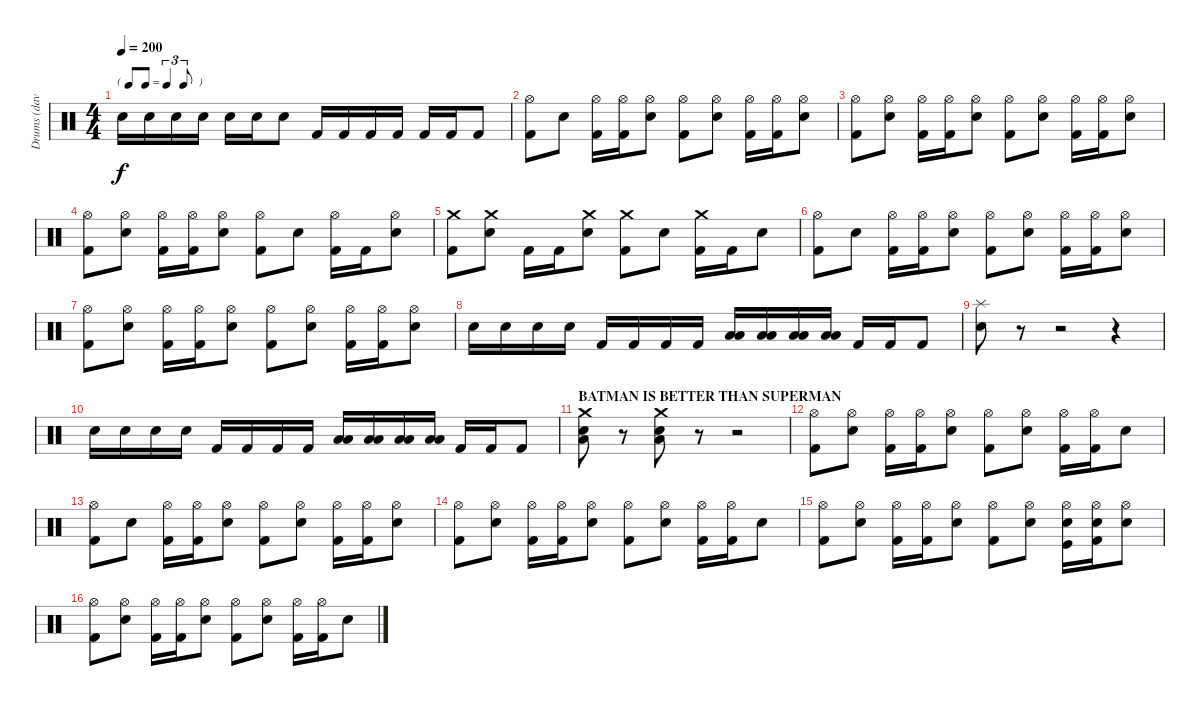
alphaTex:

\track ("Drums (dave)" "Drums (dav") {instrument percussion}
\staff {score}
\articulation defaults
\ts (4 4)
\tf triplet8th
\tempo 200
\clef neutral
\ks c "Snare (hit) 2".16{dy f} "Snare (hit) 2".16 "Snare (hit) 2".16 "Snare (hit) 2".16 "Snare (hit) 2".16 "Snare (hit) 2".16 "Snare (hit) 2".8 "Kick (hit) 2".16 "Kick (hit) 2".16 "Kick (hit) 2".16 "Kick (hit) 2".16 "Kick (hit) 2".16 "Kick (hit) 2".16 "Kick (hit) 2".8
|
("Hi-Hat (open)" "Kick (hit) 2").8 "Snare (hit) 2".8 ("Hi-Hat (open)" "Kick (hit) 2").16 ("Hi-Hat (open)" "Kick (hit) 2").16 ("Hi-Hat (open)" "Snare (hit) 2").8 ("Hi-Hat (open)" "Kick (hit) 2").8 ("Hi-Hat (open)" "Snare (hit) 2").8 ("Hi-Hat (open)" "Kick (hit) 2").16 ("Hi-Hat (open)" "Kick (hit) 2").16 ("Hi-Hat (open)" "Snare (hit) 2").8 |
("Hi-Hat (open)" "Kick (hit) 2").8 ("Hi-Hat (open)" "Snare (hit) 2").8 ("Hi-Hat (open)" "Kick (hit) 2").16 ("Hi-Hat (open)" "Kick (hit) 2").16 ("Hi-Hat (open)" "Snare (hit) 2").8 ("Hi-Hat (open)" "Kick (hit) 2").8 ("Hi-Hat (open)" "Snare (hit) 2").8 ("Hi-Hat (open)" "Kick (hit) 2").16 ("Hi-Hat (open)" "Kick (hit) 2").16 ("Hi-Hat (open)" "Snare (hit) 2").8 |
("Hi-Hat (open)" "Kick (hit) 2").8 ("Hi-Hat (open)" "Snare (hit) 2").8 ("Hi-Hat (open)" "Kick (hit) 2").16 ("Hi-Hat (open)" "Kick (hit) 2").16 ("Hi-Hat (open)" "Snare (hit) 2").8 ("Hi-Hat (open)" "Kick (hit) 2").8 "Snare (hit) 2".8 ("Hi-Hat (open)" "Kick (hit) 2").16 "Kick (hit) 2".16 ("Hi-Hat (open)" "Snare (hit) 2").8 |
("Crash medium (hit)" "Kick (hit) 2").8 ("Crash medium (hit)" "Snare (hit) 2").8 "Kick (hit) 2".16 "Kick (hit) 2".16 ("Crash medium (hit)" "Snare (hit) 2").8 ("Crash medium (hit)" "Kick (hit) 2").8 "Snare (hit) 2".8 ("Crash medium (hit)" "Kick (hit) 2").16 "Kick (hit) 2".16 "Snare (hit) 2".8 |
("Hi-Hat (open)" "Kick (hit) 2").8 "Snare (hit) 2".8 ("Hi-Hat (open)" "Kick (hit) 2").16 ("Hi-Hat (open)" "Kick (hit) 2").16 ("Hi-Hat (open)" "Snare (hit) 2").8 ("Hi-Hat (open)" "Kick (hit) 2").8 ("Hi-Hat (open)" "Snare (hit) 2").8 ("Hi-Hat (open)" "Kick (hit) 2").16 ("Hi-Hat (open)" "Kick (hit) 2").16 ("Hi-Hat (open)" "Snare (hit) 2").8 |
("Hi-Hat (open)" "Kick (hit) 2").8 ("Hi-Hat (open)" "Snare (hit) 2").8 ("Hi-Hat (open)" "Kick (hit) 2").16 ("Hi-Hat (open)" "Kick (hit) 2").16 ("Hi-Hat (open)" "Snare (hit) 2").8 ("Hi-Hat (open)" "Kick (hit) 2").8 ("Hi-Hat (open)" "Snare (hit) 2").8 ("Hi-Hat (open)" "Kick (hit) 2").16 ("Hi-Hat (open)" "Kick (hit) 2").16 ("Hi-Hat (open)" "Snare (hit) 2").8 |
"Snare (hit) 2".16 "Snare (hit) 2".16 "Snare (hit) 2".16 "Snare (hit) 2".16 "Kick (hit) 2".16 "Kick (hit) 2".16 "Kick (hit) 2".16 "Kick (hit) 2".16 ("Low Floor Tom (hit)" "Low Floor Tom (hit)").16 ("Low Floor Tom (hit)" "Low Floor Tom (hit)").16 ("Low Floor Tom (hit)" "Low Floor Tom (hit)").16 ("Low Floor Tom (hit)" "Low Floor Tom (hit)").16 "Kick (hit) 2".16 "Kick (hit) 2".16 "Kick (hit) 2".8 |
("Splash (hit)" "Snare (hit) 2").8 r.8 r.2 r.4 |
"Snare (hit) 2".16 "Snare (hit) 2".16 "Snare (hit) 2".16 "Snare (hit) 2".16 "Kick (hit) 2".16 "Kick (hit) 2".16 "Kick (hit) 2".16 "Kick (hit) 2".16 ("Low Floor Tom (hit)" "Low Floor Tom (hit)").16 ("Low Floor Tom (hit)" "Low Floor Tom (hit)").16 ("Low Floor Tom (hit)" "Low Floor Tom (hit)").16 ("Low Floor Tom (hit)" "Low Floor Tom (hit)").16 "Kick (hit) 2".16 "Kick (hit) 2".16 "Kick (hit) 2".8 |
\section ("" "BATMAN IS BETTER THAN SUPERMAN")
("Crash medium (hit)" "Snare (hit) 2" "Low Floor Tom (hit)").8 r.8 ("Crash medium (hit)" "Snare (hit) 2" "Low Floor Tom (hit)").8 r.8 r.2 |
("Hi-Hat (open)" "Kick (hit) 2").8 ("Hi-Hat (open)" "Snare (hit) 2").8 ("Hi-Hat (open)" "Kick (hit) 2").16 ("Hi-Hat (open)" "Kick (hit) 2").16 ("Hi-Hat (open)" "Snare (hit) 2").8 ("Hi-Hat (open)" "Kick (hit) 2").8 ("Hi-Hat (open)" "Snare (hit) 2").8 ("Hi-Hat (open)" "Kick (hit) 2").16 ("Hi-Hat (open)" "Kick (hit) 2").16 "Snare (hit) 2".8 |
("Hi-Hat (open)" "Kick (hit) 2").8 "Snare (hit) 2".8 ("Hi-Hat (open)" "Kick (hit) 2").16 ("Hi-Hat (open)" "Kick (hit) 2").16 ("Hi-Hat (open)" "Snare (hit) 2").8 ("Hi-Hat (open)" "Kick (hit) 2").8 ("Hi-Hat (open)" "Snare (hit) 2").8 ("Hi-Hat (open)" "Kick (hit) 2").16 ("Hi-Hat (open)" "Kick (hit) 2").16 ("Hi-Hat (open)" "Snare (hit) 2").8 |
("Hi-Hat (open)" "Kick (hit) 2").8 ("Hi-Hat (open)" "Snare (hit) 2").8 ("Hi-Hat (open)" "Kick (hit) 2").16 ("Hi-Hat (open)" "Kick (hit) 2").16 ("Hi-Hat (open)" "Snare (hit) 2").8 ("Hi-Hat (open)" "Kick (hit) 2").8 ("Hi-Hat (open)" "Snare (hit) 2").8 ("Hi-Hat (open)" "Kick (hit) 2").16 ("Hi-Hat (open)" "Kick (hit) 2").16 "Snare (hit) 2".8 |
("Hi-Hat (open)" "Kick (hit) 2").8 ("Hi-Hat (open)" "Snare (hit) 2").8 ("Hi-Hat (open)" "Kick (hit) 2").16 ("Hi-Hat (open)" "Kick (hit) 2").16 ("Hi-Hat (open)" "Snare (hit) 2").8 ("Hi-Hat (open)" "Kick (hit) 2").8 ("Hi-Hat (open)" "Snare (hit) 2").8 ("Hi-Hat (open)" "Snare (hit) 2" "Kick (hit)").16 ("Hi-Hat (open)" "Snare (hit) 2" "Kick (hit) 2").16 ("Hi-Hat (open)" "Snare (hit) 2").8 |
("Hi-Hat (open)" "Kick (hit) 2").8 ("Hi-Hat (open)" "Snare (hit) 2").8 ("Hi-Hat (open)" "Kick (hit) 2").16 ("Hi-Hat (open)" "Kick (hit) 2").16 ("Hi-Hat (open)" "Snare (hit) 2").8 ("Hi-Hat (open)" "Kick (hit) 2").8 ("Hi-Hat (open)" "Snare (hit) 2").8 ("Hi-Hat (open)" "Kick (hit) 2").16 ("Hi-Hat (open)" "Kick (hit) 2").16 "Snare (hit) 2".8
